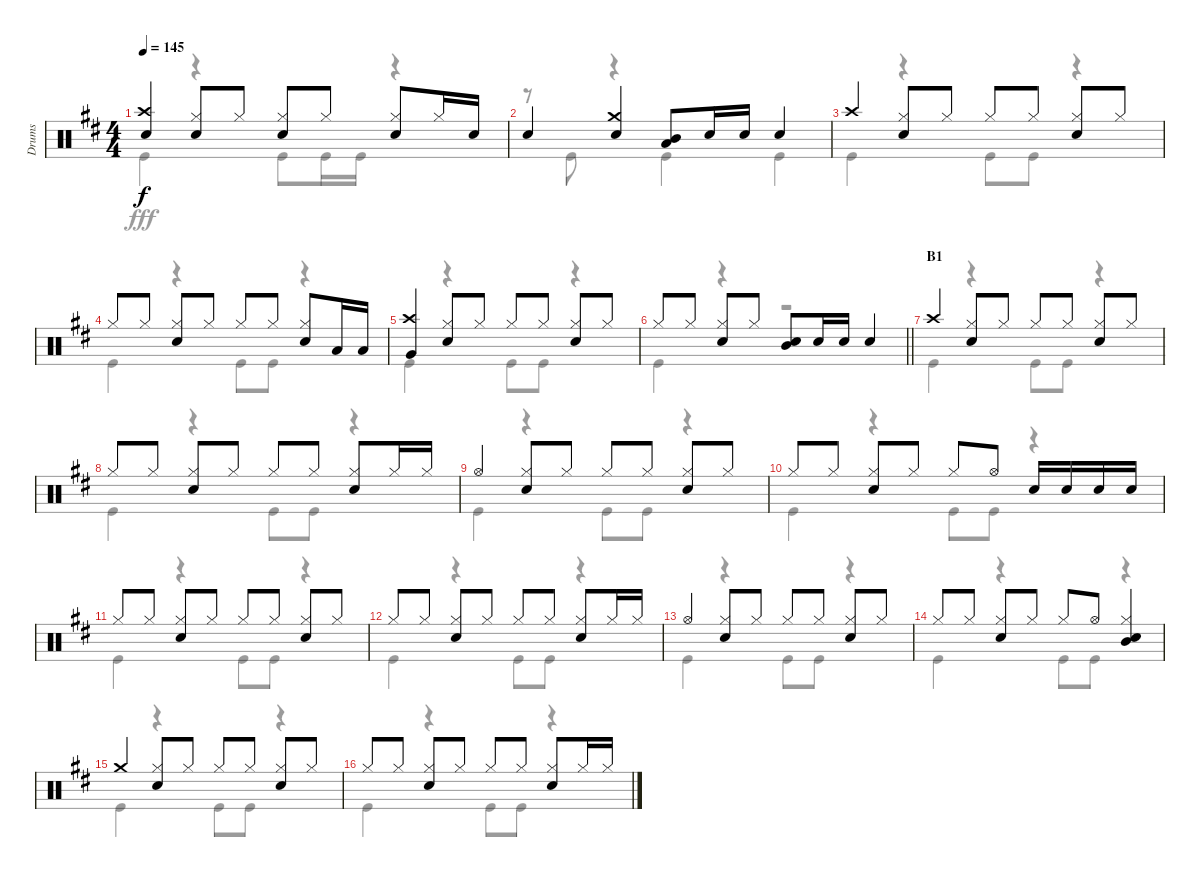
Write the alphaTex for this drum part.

\track ("Drums" "Drums") {instrument percussion}
\staff {score}
\articulation defaults
\voice
\ts (4 4)
\tempo 145
\clef neutral
\ks d
("Crash high (hit)" "Snare (hit) 2").4{dy f} ("Hi-Hat (closed)" "Snare (hit) 2").8 "Hi-Hat (closed)".8 ("Hi-Hat (closed)" "Snare (hit) 2").8 "Hi-Hat (closed)".8 ("Hi-Hat (closed)" "Snare (hit) 2").8 "Hi-Hat (closed)".16 "Snare (hit) 2".16 |
"Snare (hit) 2".4 ("Crash medium (hit)" "Snare (hit) 2").4 ("Low Tom (hit)" "Mid Tom (hit)").8 "Snare (hit) 2".16 "Snare (hit) 2".16 "Snare (hit) 2".4 |
"Crash high (hit)".4 ("Hi-Hat (closed)" "Snare (hit) 2").8 "Hi-Hat (closed)".8 "Hi-Hat (closed)".8 "Hi-Hat (closed)".8 ("Hi-Hat (closed)" "Snare (hit) 2").8 "Hi-Hat (closed)".8 |
"Hi-Hat (closed)".8 "Hi-Hat (closed)".8 ("Hi-Hat (closed)" "Snare (hit) 2").8 "Hi-Hat (closed)".8 "Hi-Hat (closed)".8 "Hi-Hat (closed)".8 ("Hi-Hat (closed)" "Snare (hit) 2").8 "Low Tom (hit)".16 "Low Tom (hit)".16 |
("Crash high (hit)" "Very Low Tom (hit)").4 ("Hi-Hat (closed)" "Snare (hit) 2").8 "Hi-Hat (closed)".8 "Hi-Hat (closed)".8 "Hi-Hat (closed)".8 ("Hi-Hat (closed)" "Snare (hit) 2").8 "Hi-Hat (closed)".8 |
\barLineRight lightlight "Hi-Hat (closed)".8 "Hi-Hat (closed)".8
("Hi-Hat (closed)" "Snare (hit) 2").8 "Hi-Hat (closed)".8 ("Snare (hit) 2" "Mid Tom (hit)").8 "Snare (hit) 2".16 "Snare (hit) 2".16 "Snare (hit) 2".4 |
\section ("" "B1")
"Crash high (hit)".4 ("Hi-Hat (closed)" "Snare (hit) 2").8 "Hi-Hat (closed)".8 "Hi-Hat (closed)".8 "Hi-Hat (closed)".8 ("Hi-Hat (closed)" "Snare (hit) 2").8 "Hi-Hat (closed)".8 |
"Hi-Hat (closed)".8 "Hi-Hat (closed)".8 ("Hi-Hat (closed)" "Snare (hit) 2").8 "Hi-Hat (closed)".8 "Hi-Hat (closed)".8 "Hi-Hat (closed)".8 ("Hi-Hat (closed)" "Snare (hit) 2").8 "Hi-Hat (closed)".16 "Hi-Hat (closed)".16 |
"Hi-Hat (open)".4 ("Hi-Hat (closed)" "Snare (hit) 2").8 "Hi-Hat (closed)".8 "Hi-Hat (closed)".8 "Hi-Hat (closed)".8 ("Hi-Hat (closed)" "Snare (hit) 2").8 "Hi-Hat (closed)".8 |
"Hi-Hat (closed)".8 "Hi-Hat (closed)".8 ("Hi-Hat (closed)" "Snare (hit) 2").8 "Hi-Hat (closed)".8 "Hi-Hat (closed)".8 "Hi-Hat (open)".8 "Snare (hit) 2".16 "Snare (hit) 2".16 "Snare (hit) 2".16 "Snare (hit) 2".16 |
"Hi-Hat (closed)".8 "Hi-Hat (closed)".8 ("Hi-Hat (closed)" "Snare (hit) 2").8 "Hi-Hat (closed)".8 "Hi-Hat (closed)".8 "Hi-Hat (closed)".8 ("Hi-Hat (closed)" "Snare (hit) 2").8 "Hi-Hat (closed)".8 |
"Hi-Hat (closed)".8 "Hi-Hat (closed)".8 ("Hi-Hat (closed)" "Snare (hit) 2").8 "Hi-Hat (closed)".8 "Hi-Hat (closed)".8 "Hi-Hat (closed)".8 ("Hi-Hat (closed)" "Snare (hit) 2").8 "Hi-Hat (closed)".16 "Hi-Hat (closed)".16 |
"Hi-Hat (open)".4 ("Hi-Hat (closed)" "Snare (hit) 2").8 "Hi-Hat (closed)".8 "Hi-Hat (closed)".8 "Hi-Hat (closed)".8 ("Hi-Hat (closed)" "Snare (hit) 2").8 "Hi-Hat (closed)".8 |
"Hi-Hat (closed)".8 "Hi-Hat (closed)".8 ("Hi-Hat (closed)" "Snare (hit) 2").8 "Hi-Hat (closed)".8 "Hi-Hat (closed)".8 "Hi-Hat (open)".8 ("Hi-Hat (closed)" "Snare (hit) 2" "Mid Tom (hit)").4 |
"Crash medium (hit)".4 ("Hi-Hat (closed)" "Snare (hit) 2").8 "Hi-Hat (closed)".8 "Hi-Hat (closed)".8 "Hi-Hat (closed)".8 ("Hi-Hat (closed)" "Snare (hit) 2").8 "Hi-Hat (closed)".8 |
"Hi-Hat (closed)".8 "Hi-Hat (closed)".8 ("Hi-Hat (closed)" "Snare (hit) 2").8 "Hi-Hat (closed)".8 "Hi-Hat (closed)".8 "Hi-Hat (closed)".8 ("Hi-Hat (closed)" "Snare (hit) 2").8 "Hi-Hat (closed)".16 "Hi-Hat (closed)".16
\voice
\clef neutral
\ottava regular
\simile none
\ks d "Kick (hit)".4{dy fff}
r.4 "Kick (hit)".8 "Kick (hit)".16 "Kick (hit)".16 r.4 |
r.8 "Kick (hit)".8 r.4 "Kick (hit)".4 "Kick (hit)".4 |
"Kick (hit)".4 r.4 "Kick (hit)".8 "Kick (hit)".8 r.4 |
"Kick (hit)".4 r.4 "Kick (hit)".8 "Kick (hit)".8 r.4 |
"Kick (hit)".4 r.4 "Kick (hit)".8 "Kick (hit)".8 r.4 |
\barLineRight lightlight "Kick (hit)".4
r.4 r.2 |
"Kick (hit)".4 r.4 "Kick (hit)".8 "Kick (hit)".8 r.4 |
"Kick (hit)".4 r.4 "Kick (hit)".8 "Kick (hit)".8 r.4 |
"Kick (hit)".4 r.4 "Kick (hit)".8 "Kick (hit)".8 r.4 |
"Kick (hit)".4 r.4 "Kick (hit)".8 "Kick (hit)".8 r.4 |
"Kick (hit)".4 r.4 "Kick (hit)".8 "Kick (hit)".8 r.4 |
"Kick (hit)".4 r.4 "Kick (hit)".8 "Kick (hit)".8 r.4 |
"Kick (hit)".4 r.4 "Kick (hit)".8 "Kick (hit)".8 r.4 |
"Kick (hit)".4 r.4 "Kick (hit)".8 "Kick (hit)".8 r.4 |
"Kick (hit)".4 r.4 "Kick (hit)".8 "Kick (hit)".8 r.4 |
"Kick (hit)".4 r.4 "Kick (hit)".8 "Kick (hit)".8 r.4
